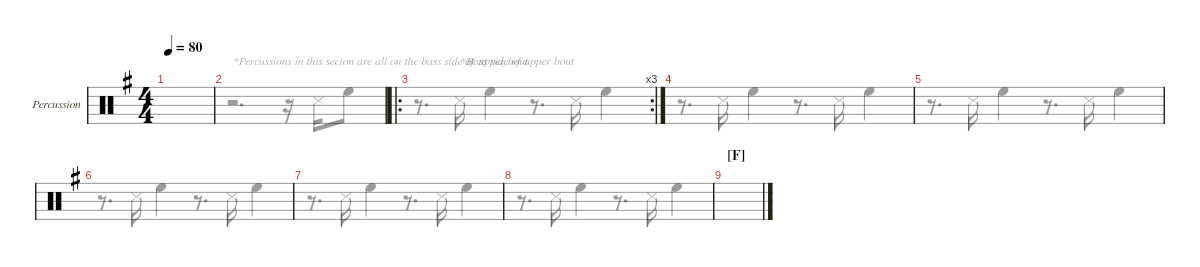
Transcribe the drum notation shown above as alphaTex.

\defaultSystemsLayout 4
\hideDynamics
\bracketExtendMode groupsimilarinstruments
\firstSystemTrackNameMode fullname
\otherSystemsTrackNameMode fullname
\firstSystemTrackNameOrientation horizontal
\otherSystemsTrackNameOrientation horizontal
\track ("Percussion" "Perc.") {instrument percussion}
\staff {score}
\articulation defaults
\voice
\ts (4 4)
\tempo 80
\clef neutral
\ks g
|
|
\ro
\rc 3
|
|
|
|
|
|
\section ("F" "")
|
|
|
|
|
|
|
\voice
\clef neutral
\ks g
|
r.2{d txt "*Percussions in this secion are all on the bass side of upper bout"} r.16 "Snare (side stick) 3".16 "High Floor Tom (hit)".8{dy ff} |
r.8{d} "Snare (side stick) 3".16{txt "*Bass side of upper bout" dy mf} "High Floor Tom (hit)".4{dy ff} r.8{d} "Snare (side stick) 3".16{dy mf} "High Floor Tom (hit)".4{dy ff} |
r.8{d} "Snare (side stick) 3".16{dy mf} "High Floor Tom (hit)".4{dy ff} r.8{d} "Snare (side stick) 3".16{dy mf} "High Floor Tom (hit)".4{dy ff} |
r.8{d} "Snare (side stick) 3".16{dy mf} "High Floor Tom (hit)".4{dy ff} r.8{d} "Snare (side stick) 3".16{dy mf} "High Floor Tom (hit)".4{dy ff} |
r.8{d} "Snare (side stick) 3".16{dy mf} "High Floor Tom (hit)".4{dy ff} r.8{d} "Snare (side stick) 3".16{dy mf} "High Floor Tom (hit)".4{dy ff} |
r.8{d} "Snare (side stick) 3".16{dy mf} "High Floor Tom (hit)".4{dy ff} r.8{d} "Snare (side stick) 3".16{dy mf} "High Floor Tom (hit)".4{dy ff} |
r.8{d} "Snare (side stick) 3".16{dy mf} "High Floor Tom (hit)".4{dy ff} r.8{d} "Snare (side stick) 3".16{dy mf} "High Floor Tom (hit)".4{dy ff} |
|
|
|
|
|
|
|
